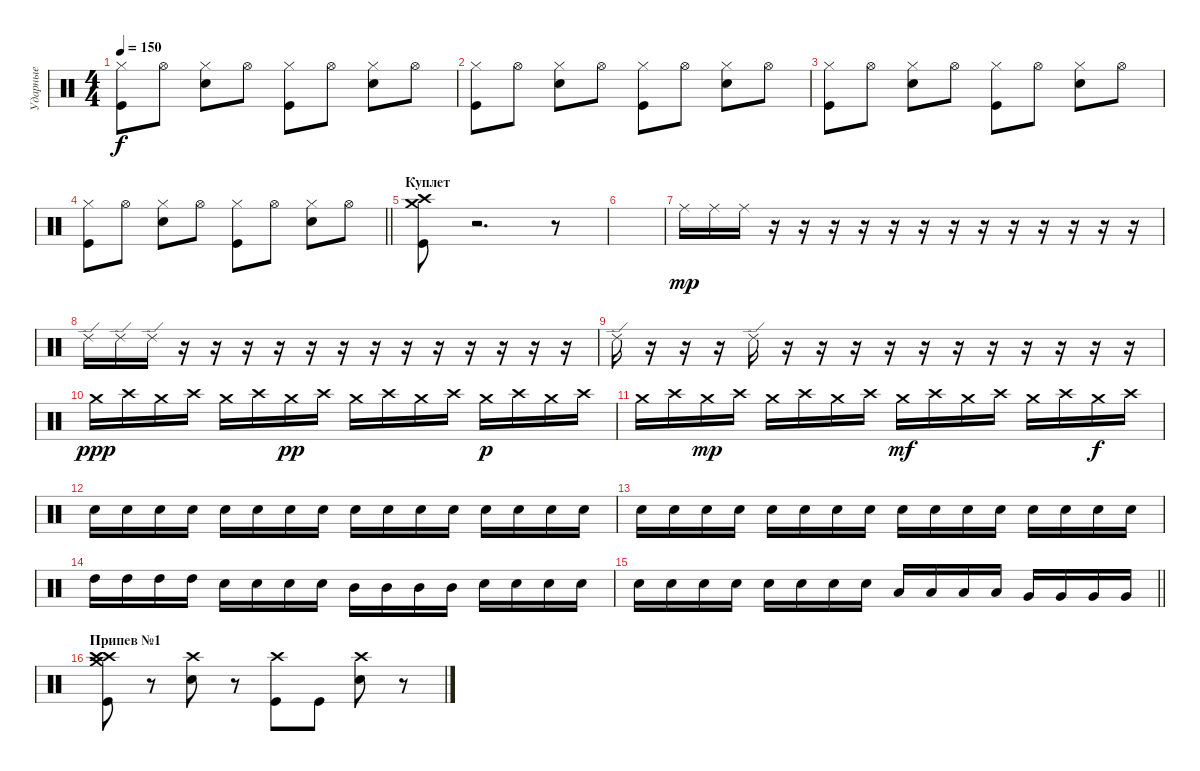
\track ("Ударные" "Ударные") {instrument percussion}
\staff {score}
\articulation defaults
\ts (4 4)
\tempo 150
\clef neutral
\ks c
("Kick (hit)" "Hi-Hat (closed)").8{dy f} "Hi-Hat (open)".8 ("Electric Snare (hit)" "Hi-Hat (closed)").8 "Hi-Hat (open)".8 ("Kick (hit)" "Hi-Hat (closed)").8 "Hi-Hat (open)".8 ("Electric Snare (hit)" "Hi-Hat (closed)").8 "Hi-Hat (open)".8 |
("Kick (hit)" "Hi-Hat (closed)").8 "Hi-Hat (open)".8 ("Electric Snare (hit)" "Hi-Hat (closed)").8 "Hi-Hat (open)".8 ("Kick (hit)" "Hi-Hat (closed)").8 "Hi-Hat (open)".8 ("Electric Snare (hit)" "Hi-Hat (closed)").8 "Hi-Hat (open)".8 |
("Kick (hit)" "Hi-Hat (closed)").8 "Hi-Hat (open)".8 ("Electric Snare (hit)" "Hi-Hat (closed)").8 "Hi-Hat (open)".8 ("Kick (hit)" "Hi-Hat (closed)").8 "Hi-Hat (open)".8 ("Electric Snare (hit)" "Hi-Hat (closed)").8 "Hi-Hat (open)".8 |
\barLineRight lightlight
("Kick (hit)" "Hi-Hat (closed)").8 "Hi-Hat (open)".8 ("Electric Snare (hit)" "Hi-Hat (closed)").8 "Hi-Hat (open)".8 ("Kick (hit)" "Hi-Hat (closed)").8 "Hi-Hat (open)".8 ("Electric Snare (hit)" "Hi-Hat (closed)").8 "Hi-Hat (open)".8 |
\section ("" "Куплет")
("Crash high (hit)" "Kick (hit)" "Crash medium (hit)").8 r.2{d} r.8 |
|
"Ride (middle)".16{dy mp} "Ride (middle)".16 "Ride (middle)".16 r.16 r.16 r.16 r.16 r.16 r.16 r.16 r.16 r.16 r.16 r.16 r.16 r.16 |
"Ride (edge) 2".16 "Ride (edge) 2".16 "Ride (edge) 2".16 r.16 r.16 r.16 r.16 r.16 r.16 r.16 r.16 r.16 r.16 r.16 r.16 r.16 |
"Ride (edge) 2".16 r.16 r.16 r.16 "Ride (edge) 2".16 r.16 r.16 r.16 r.16 r.16 r.16 r.16 r.16 r.16 r.16 r.16 |
"Crash medium (hit)".16{dy ppp} "Crash high (hit)".16 "Crash medium (hit)".16 "Crash high (hit)".16 "Crash medium (hit)".16 "Crash high (hit)".16 "Crash medium (hit)".16{dy pp} "Crash high (hit)".16 "Crash medium (hit)".16 "Crash high (hit)".16 "Crash medium (hit)".16 "Crash high (hit)".16 "Crash medium (hit)".16{dy p} "Crash high (hit)".16 "Crash medium (hit)".16 "Crash high (hit)".16 |
"Crash medium (hit)".16 "Crash high (hit)".16 "Crash medium (hit)".16{dy mp} "Crash high (hit)".16 "Crash medium (hit)".16 "Crash high (hit)".16 "Crash medium (hit)".16 "Crash high (hit)".16 "Crash medium (hit)".16{dy mf} "Crash high (hit)".16 "Crash medium (hit)".16 "Crash high (hit)".16 "Crash medium (hit)".16 "Crash high (hit)".16 "Crash medium (hit)".16{dy f} "Crash high (hit)".16 |
"Electric Snare (hit)".16 "Electric Snare (hit)".16 "Electric Snare (hit)".16 "Electric Snare (hit)".16 "Electric Snare (hit)".16 "Electric Snare (hit)".16 "Electric Snare (hit)".16 "Electric Snare (hit)".16 "Electric Snare (hit)".16 "Electric Snare (hit)".16 "Electric Snare (hit)".16 "Electric Snare (hit)".16 "Electric Snare (hit)".16 "Electric Snare (hit)".16 "Electric Snare (hit)".16 "Electric Snare (hit)".16 |
"Electric Snare (hit)".16 "Electric Snare (hit)".16 "Electric Snare (hit)".16 "Electric Snare (hit)".16 "Electric Snare (hit)".16 "Electric Snare (hit)".16 "Electric Snare (hit)".16 "Electric Snare (hit)".16 "Electric Snare (hit)".16 "Electric Snare (hit)".16 "Electric Snare (hit)".16 "Electric Snare (hit)".16 "Electric Snare (hit)".16 "Electric Snare (hit)".16 "Electric Snare (hit)".16 "Electric Snare (hit)".16 |
"High Tom (hit)".16 "High Tom (hit)".16 "High Tom (hit)".16 "High Tom (hit)".16 "Electric Snare (hit)".16 "Electric Snare (hit)".16 "Electric Snare (hit)".16 "Electric Snare (hit)".16 "Mid Tom (hit)".16 "Mid Tom (hit)".16 "Mid Tom (hit)".16 "Mid Tom (hit)".16 "Electric Snare (hit)".16 "Electric Snare (hit)".16 "Electric Snare (hit)".16 "Electric Snare (hit)".16 |
\barLineRight lightlight "Electric Snare (hit)".16 "Electric Snare (hit)".16 "Electric Snare (hit)".16 "Electric Snare (hit)".16 "Electric Snare (hit)".16 "Electric Snare (hit)".16 "Electric Snare (hit)".16 "Electric Snare (hit)".16 "Low Tom (hit)".16 "Low Tom (hit)".16 "Low Tom (hit)".16 "Low Tom (hit)".16 "Very Low Tom (hit)".16 "Very Low Tom (hit)".16 "Very Low Tom (hit)".16 "Very Low Tom (hit)".16
|
\section ("" "Припев №1")
("Kick (hit)" "Crash high (hit)" "Crash medium (hit)" "Crash high (hit)").8 r.8 ("Electric Snare (hit)" "Crash high (hit)").8 r.8 ("Kick (hit)" "Crash high (hit)").8 "Kick (hit)".8 ("Electric Snare (hit)" "Crash high (hit)").8 r.8
